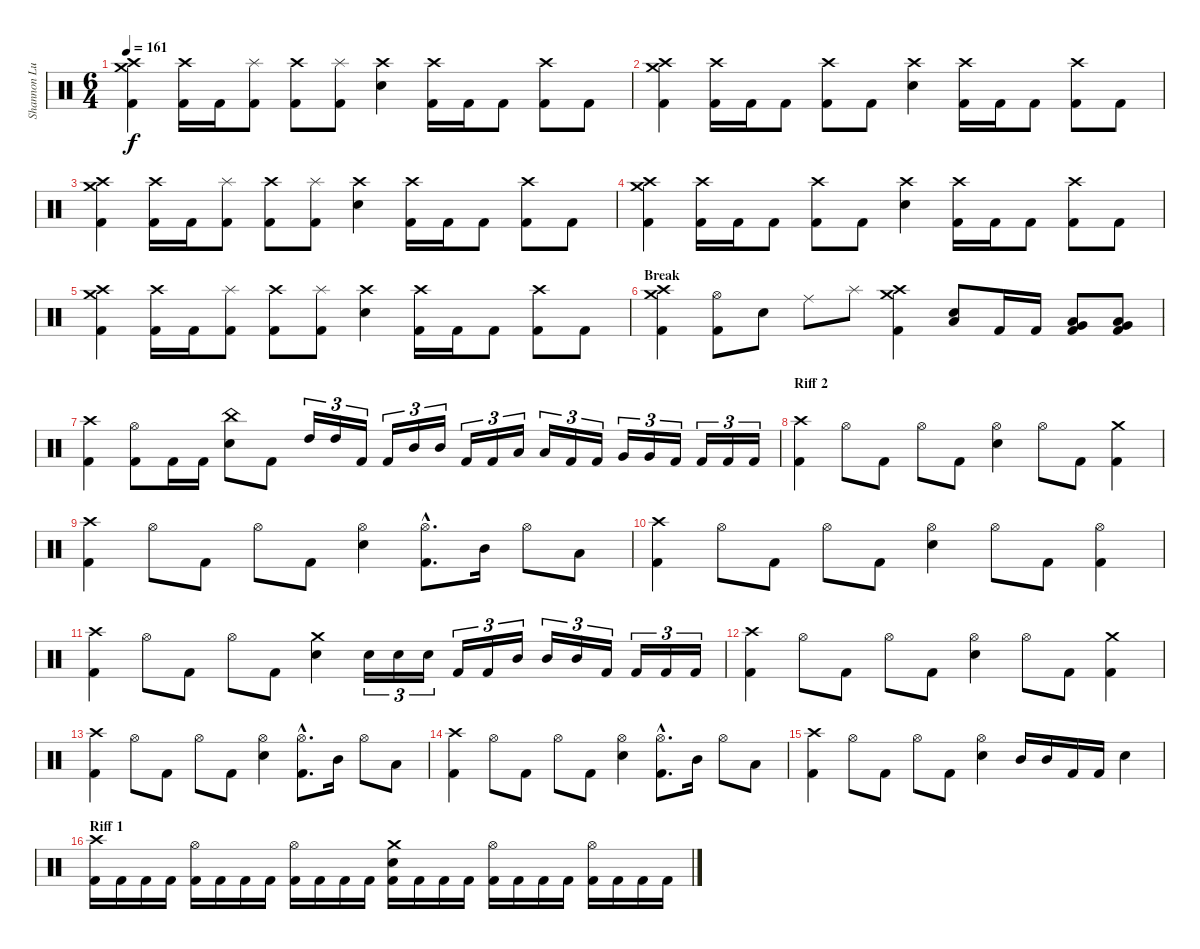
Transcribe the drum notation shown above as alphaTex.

\track ("Shannon Lucas (Drums)" "Shannon Lu") {instrument percussion}
\staff {score}
\articulation defaults
\ts (6 4)
\tempo 161
\clef neutral
\ks c
("Crash medium (hit)" "Crash high (hit)" "Kick (hit) 2").4{dy f} ("Crash high (hit)" "Kick (hit) 2").16 "Kick (hit) 2".16 ("Splash (hit)" "Kick (hit) 2").8 ("Crash high (hit)" "Kick (hit) 2").8 ("Splash (hit)" "Kick (hit) 2").8 ("Crash high (hit)" "Snare (hit) 2").4 ("Crash high (hit)" "Kick (hit) 2").16 "Kick (hit) 2".16 "Kick (hit) 2".8 ("Crash high (hit)" "Kick (hit) 2").8 "Kick (hit) 2".8 |
("Crash medium (hit)" "Crash high (hit)" "Kick (hit) 2").4 ("Crash high (hit)" "Kick (hit) 2").16 "Kick (hit) 2".16 "Kick (hit) 2".8 ("Crash high (hit)" "Kick (hit) 2").8 "Kick (hit) 2".8 ("Crash high (hit)" "Snare (hit) 2").4 ("Crash high (hit)" "Kick (hit) 2").16 "Kick (hit) 2".16 "Kick (hit) 2".8 ("Crash high (hit)" "Kick (hit) 2").8 "Kick (hit) 2".8 |
("Crash medium (hit)" "Crash high (hit)" "Kick (hit) 2").4 ("Crash high (hit)" "Kick (hit) 2").16 "Kick (hit) 2".16 ("Splash (hit)" "Kick (hit) 2").8 ("Crash high (hit)" "Kick (hit) 2").8 ("Splash (hit)" "Kick (hit) 2").8 ("Crash high (hit)" "Snare (hit) 2").4 ("Crash high (hit)" "Kick (hit) 2").16 "Kick (hit) 2".16 "Kick (hit) 2".8 ("Crash high (hit)" "Kick (hit) 2").8 "Kick (hit) 2".8 |
("Crash medium (hit)" "Crash high (hit)" "Kick (hit) 2").4 ("Crash high (hit)" "Kick (hit) 2").16 "Kick (hit) 2".16 "Kick (hit) 2".8 ("Crash high (hit)" "Kick (hit) 2").8 "Kick (hit) 2".8 ("Crash high (hit)" "Snare (hit) 2").4 ("Crash high (hit)" "Kick (hit) 2").16 "Kick (hit) 2".16 "Kick (hit) 2".8 ("Crash high (hit)" "Kick (hit) 2").8 "Kick (hit) 2".8 |
("Crash medium (hit)" "Crash high (hit)" "Kick (hit) 2").4 ("Crash high (hit)" "Kick (hit) 2").16 "Kick (hit) 2".16 ("Splash (hit)" "Kick (hit) 2").8 ("Crash high (hit)" "Kick (hit) 2").8 ("Splash (hit)" "Kick (hit) 2").8 ("Crash high (hit)" "Snare (hit) 2").4 ("Crash high (hit)" "Kick (hit) 2").16 "Kick (hit) 2".16 "Kick (hit) 2".8 ("Crash high (hit)" "Kick (hit) 2").8 "Kick (hit) 2".8 |
\section ("" "Break")
("Crash high (hit)" "Crash medium (hit)" "Kick (hit) 2").4 ("Hi-Hat (open)" "Kick (hit) 2").8 "Snare (hit) 2".8 "Ride (middle)".8 "Splash (hit)".8 ("Crash high (hit)" "Crash medium (hit)" "Kick (hit) 2").4 ("Low Floor Tom (hit)" "Snare (hit) 2").8 "Kick (hit) 2".16 "Kick (hit) 2".16 ("Low Tom (hit)" "Very Low Tom (hit)" "Kick (hit) 2").8 ("Very Low Tom (hit)" "Low Floor Tom (hit)" "Kick (hit) 2").8 |
("Crash high (hit)" "Kick (hit) 2").4 ("Hi-Hat (open)" "Kick (hit) 2").8 "Kick (hit) 2".16 "Kick (hit) 2".16 ("China (hit)" "Snare (hit) 2").8 "Kick (hit) 2".8 "High Tom (hit)".16{tu (3 2)} "High Tom (hit)".16{tu (3 2)} "Kick (hit) 2".16{tu (3 2)} "Kick (hit) 2".16{tu (3 2)} "Mid Tom (hit)".16{tu (3 2)} "Mid Tom (hit)".16{tu (3 2)} "Kick (hit) 2".16{tu (3 2)} "Kick (hit) 2".16{tu (3 2)} "Low Tom (hit)".16{tu (3 2)} "Low Tom (hit)".16{tu (3 2)} "Kick (hit) 2".16{tu (3 2)} "Kick (hit) 2".16{tu (3 2)} "Very Low Tom (hit)".16{tu (3 2)} "Very Low Tom (hit)".16{tu (3 2)} "Kick (hit) 2".16{tu (3 2)} "Kick (hit) 2".16{tu (3 2)} "Kick (hit) 2".16{tu (3 2)} "Kick (hit) 2".16{tu (3 2)} |
\section ("" "Riff 2")
("Crash high (hit)" "Kick (hit) 2").4 "Hi-Hat (open)".8 "Kick (hit) 2".8 "Hi-Hat (open)".8 "Kick (hit) 2".8 ("Hi-Hat (open)" "Snare (hit) 2").4 "Hi-Hat (open)".8 "Kick (hit) 2".8 ("Crash medium (hit)" "Kick (hit) 2").4 |
("Crash high (hit)" "Kick (hit) 2").4 "Hi-Hat (open)".8 "Kick (hit) 2".8 "Hi-Hat (open)".8 "Kick (hit) 2".8 ("Hi-Hat (open)" "Snare (hit) 2").4 ("Hi-Hat (open)"{hac} "Kick (hit) 2"{hac}).8{d} "Mid Tom (hit)".16 "Hi-Hat (open)".8 "Low Tom (hit)".8 |
("Crash high (hit)" "Kick (hit) 2").4 "Hi-Hat (open)".8 "Kick (hit) 2".8 "Hi-Hat (open)".8 "Kick (hit) 2".8 ("Hi-Hat (open)" "Snare (hit) 2").4 "Hi-Hat (open)".8 "Kick (hit) 2".8 ("Hi-Hat (open)" "Kick (hit) 2").4 |
("Crash high (hit)" "Kick (hit) 2").4 "Hi-Hat (open)".8 "Kick (hit) 2".8 "Hi-Hat (open)".8 "Kick (hit) 2".8 ("Crash medium (hit)" "Snare (hit) 2").4 "Snare (hit) 2".16{tu (3 2)} "Snare (hit) 2".16{tu (3 2)} "Snare (hit) 2".16{tu (3 2)} "Kick (hit) 2".16{tu (3 2)} "Kick (hit) 2".16{tu (3 2)} "Mid Tom (hit)".16{tu (3 2)} "Mid Tom (hit)".16{tu (3 2)} "Mid Tom (hit)".16{tu (3 2)} "Kick (hit) 2".16{tu (3 2)} "Kick (hit) 2".16{tu (3 2)} "Kick (hit) 2".16{tu (3 2)} "Kick (hit) 2".16{tu (3 2)} |
("Crash high (hit)" "Kick (hit) 2").4 "Hi-Hat (open)".8 "Kick (hit) 2".8 "Hi-Hat (open)".8 "Kick (hit) 2".8 ("Hi-Hat (open)" "Snare (hit) 2").4 "Hi-Hat (open)".8 "Kick (hit) 2".8 ("Crash medium (hit)" "Kick (hit) 2").4 |
("Crash high (hit)" "Kick (hit) 2").4 "Hi-Hat (open)".8 "Kick (hit) 2".8 "Hi-Hat (open)".8 "Kick (hit) 2".8 ("Hi-Hat (open)" "Snare (hit) 2").4 ("Hi-Hat (open)"{hac} "Kick (hit) 2"{hac}).8{d} "Mid Tom (hit)".16 "Hi-Hat (open)".8 "Low Tom (hit)".8 |
("Crash high (hit)" "Kick (hit) 2").4 "Hi-Hat (open)".8 "Kick (hit) 2".8 "Hi-Hat (open)".8 "Kick (hit) 2".8 ("Hi-Hat (open)" "Snare (hit) 2").4 ("Hi-Hat (open)"{hac} "Kick (hit) 2"{hac}).8{d} "Mid Tom (hit)".16 "Hi-Hat (open)".8 "Low Tom (hit)".8 |
("Crash high (hit)" "Kick (hit) 2").4 "Hi-Hat (open)".8 "Kick (hit) 2".8 "Hi-Hat (open)".8 "Kick (hit) 2".8 ("Hi-Hat (open)" "Snare (hit) 2").4 "Mid Tom (hit)".16 "Mid Tom (hit)".16 "Kick (hit) 2".16 "Kick (hit) 2".16 "Snare (hit) 2".4 |
\section ("" "Riff 1")
("Crash high (hit)" "Kick (hit) 2").16 "Kick (hit) 2".16 "Kick (hit) 2".16 "Kick (hit) 2".16 ("Hi-Hat (open)" "Kick (hit) 2").16 "Kick (hit) 2".16 "Kick (hit) 2".16 "Kick (hit) 2".16 ("Hi-Hat (open)" "Kick (hit) 2").16 "Kick (hit) 2".16 "Kick (hit) 2".16 "Kick (hit) 2".16 ("Snare (hit) 2" "Crash medium (hit)" "Kick (hit) 2").16 "Kick (hit) 2".16 "Kick (hit) 2".16 "Kick (hit) 2".16 ("Hi-Hat (open)" "Kick (hit) 2").16 "Kick (hit) 2".16 "Kick (hit) 2".16 "Kick (hit) 2".16 ("Hi-Hat (open)" "Kick (hit) 2").16 "Kick (hit) 2".16 "Kick (hit) 2".16 "Kick (hit) 2".16
